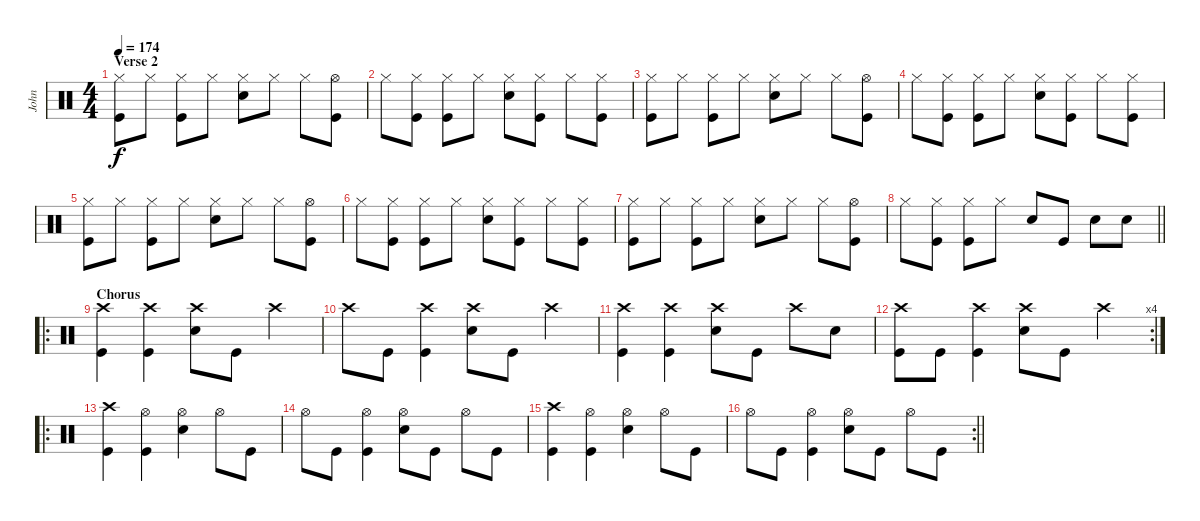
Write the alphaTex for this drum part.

\track ("John" "John") {instrument percussion}
\staff {score}
\articulation defaults
\ts (4 4)
\section ("" "Verse 2")
\tempo 174
\clef neutral
\ks c
("Hi-Hat (closed)" "Kick (hit)").8{dy f} "Hi-Hat (closed)".8 ("Hi-Hat (closed)" "Kick (hit)").8 "Hi-Hat (closed)".8 ("Hi-Hat (closed)" "Snare (hit) 2").8 "Hi-Hat (closed)".8 "Hi-Hat (closed)".8 ("Hi-Hat (open)" "Kick (hit)").8 |
"Hi-Hat (closed)".8 ("Hi-Hat (closed)" "Kick (hit)").8 ("Hi-Hat (closed)" "Kick (hit)").8 "Hi-Hat (closed)".8 ("Hi-Hat (closed)" "Snare (hit) 2").8 ("Hi-Hat (closed)" "Kick (hit)").8 "Hi-Hat (closed)".8 ("Hi-Hat (closed)" "Kick (hit)").8 |
("Hi-Hat (closed)" "Kick (hit)").8 "Hi-Hat (closed)".8 ("Hi-Hat (closed)" "Kick (hit)").8 "Hi-Hat (closed)".8 ("Hi-Hat (closed)" "Snare (hit) 2").8 "Hi-Hat (closed)".8 "Hi-Hat (closed)".8 ("Hi-Hat (open)" "Kick (hit)").8 |
"Hi-Hat (closed)".8 ("Hi-Hat (closed)" "Kick (hit)").8 ("Hi-Hat (closed)" "Kick (hit)").8 "Hi-Hat (closed)".8 ("Hi-Hat (closed)" "Snare (hit) 2").8 ("Hi-Hat (closed)" "Kick (hit)").8 "Hi-Hat (closed)".8 ("Hi-Hat (closed)" "Kick (hit)").8 |
("Hi-Hat (closed)" "Kick (hit)").8 "Hi-Hat (closed)".8 ("Hi-Hat (closed)" "Kick (hit)").8 "Hi-Hat (closed)".8 ("Hi-Hat (closed)" "Snare (hit) 2").8 "Hi-Hat (closed)".8 "Hi-Hat (closed)".8 ("Hi-Hat (open)" "Kick (hit)").8 |
"Hi-Hat (closed)".8 ("Hi-Hat (closed)" "Kick (hit)").8 ("Hi-Hat (closed)" "Kick (hit)").8 "Hi-Hat (closed)".8 ("Hi-Hat (closed)" "Snare (hit) 2").8 ("Hi-Hat (closed)" "Kick (hit)").8 "Hi-Hat (closed)".8 ("Hi-Hat (closed)" "Kick (hit)").8 |
("Hi-Hat (closed)" "Kick (hit)").8 "Hi-Hat (closed)".8 ("Hi-Hat (closed)" "Kick (hit)").8 "Hi-Hat (closed)".8 ("Hi-Hat (closed)" "Snare (hit) 2").8 "Hi-Hat (closed)".8 "Hi-Hat (closed)".8 ("Hi-Hat (open)" "Kick (hit)").8 |
\barLineRight lightlight "Hi-Hat (closed)".8
("Hi-Hat (closed)" "Kick (hit)").8 ("Hi-Hat (closed)" "Kick (hit)").8 "Hi-Hat (closed)".8 "Snare (hit) 2".8 "Kick (hit)".8 "Snare (hit) 2".8 "Snare (hit) 2".8 |
\ro
\section ("" "Chorus")
("Crash high (hit)" "Kick (hit)").4 ("Crash high (hit)" "Kick (hit)").4 ("Crash high (hit)" "Snare (hit) 2").8 "Kick (hit)".8 "Crash high (hit)".4 |
"Crash high (hit)".8 "Kick (hit)".8 ("Crash high (hit)" "Kick (hit)").4 ("Crash high (hit)" "Snare (hit) 2").8 "Kick (hit)".8 "Crash high (hit)".4 |
("Crash high (hit)" "Kick (hit)").4 ("Crash high (hit)" "Kick (hit)").4 ("Crash high (hit)" "Snare (hit) 2").8 "Kick (hit)".8 "Crash high (hit)".8 "Snare (hit) 2".8 |
\rc 4
("Crash high (hit)" "Kick (hit)").8 "Kick (hit)".8 ("Crash high (hit)" "Kick (hit)").4 ("Crash high (hit)" "Snare (hit) 2").8 "Kick (hit)".8 "Crash high (hit)".4 |
\ro
("Kick (hit)" "Crash high (hit)").4 ("Hi-Hat (open)" "Kick (hit)").4 ("Hi-Hat (open)" "Snare (hit) 2").4 "Hi-Hat (open)".8 "Kick (hit)".8 |
"Hi-Hat (open)".8 "Kick (hit)".8 ("Hi-Hat (open)" "Kick (hit)").4 ("Hi-Hat (open)" "Snare (hit) 2").8 "Kick (hit)".8 "Hi-Hat (open)".8 "Kick (hit)".8 |
("Kick (hit)" "Crash high (hit)").4 ("Hi-Hat (open)" "Kick (hit)").4 ("Hi-Hat (open)" "Snare (hit) 2").4 "Hi-Hat (open)".8 "Kick (hit)".8 |
\rc 2
\barLineRight lightlight "Hi-Hat (open)".8 "Kick (hit)".8
("Hi-Hat (open)" "Kick (hit)").4 ("Hi-Hat (open)" "Snare (hit) 2").8 "Kick (hit)".8 "Hi-Hat (open)".8 "Kick (hit)".8
